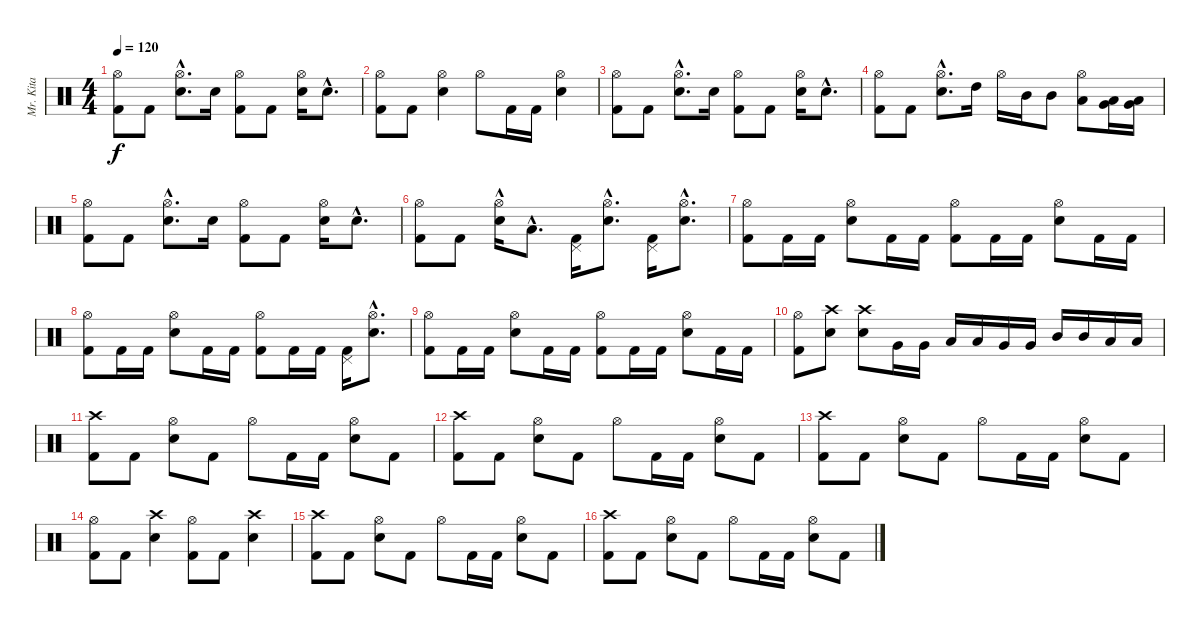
\track ("Mr. Kita" "Mr. Kita") {instrument percussion}
\staff {score}
\articulation defaults
\ts (4 4)
\tempo 120
\clef neutral
\ks c
("Hi-Hat (open)" "Kick (hit) 2").8{dy f} "Kick (hit) 2".8 ("Hi-Hat (open)"{hac} "Snare (hit) 2"{hac}).8{d} "Snare (hit) 2".16 ("Hi-Hat (open)" "Kick (hit) 2").8 "Kick (hit) 2".8 ("Hi-Hat (open)" "Snare (hit) 2").16 "Snare (hit) 2"{hac}.8{d} |
("Hi-Hat (open)" "Kick (hit) 2").8 "Kick (hit) 2".8 ("Hi-Hat (open)" "Snare (hit) 2").4 "Hi-Hat (open)".8 "Kick (hit) 2".16 "Kick (hit) 2".16 ("Hi-Hat (open)" "Snare (hit) 2").4 |
("Hi-Hat (open)" "Kick (hit) 2").8 "Kick (hit) 2".8 ("Hi-Hat (open)"{hac} "Snare (hit) 2"{hac}).8{d} "Snare (hit) 2".16 ("Hi-Hat (open)" "Kick (hit) 2").8 "Kick (hit) 2".8 ("Hi-Hat (open)" "Snare (hit) 2").16 "Snare (hit) 2"{hac}.8{d} |
("Hi-Hat (open)" "Kick (hit) 2").8 "Kick (hit) 2".8 ("Hi-Hat (open)"{hac} "Snare (hit) 2"{hac}).8{d} "High Tom (hit)".16 "Hi-Hat (open)".16 "Mid Tom (hit)".16 "Mid Tom (hit)".8 ("Hi-Hat (open)" "Low Tom (hit)").8 ("Low Floor Tom (hit)" "Very Low Tom (hit)").16 ("Low Floor Tom (hit)" "Very Low Tom (hit)").16 |
("Hi-Hat (open)" "Kick (hit) 2").8 "Kick (hit) 2".8 ("Hi-Hat (open)"{hac} "Snare (hit) 2"{hac}).8{d} "Snare (hit) 2".16 ("Hi-Hat (open)" "Kick (hit) 2").8 "Kick (hit) 2".8 ("Hi-Hat (open)" "Snare (hit) 2").16 "Snare (hit) 2"{hac}.8{d} |
("Hi-Hat (open)" "Kick (hit) 2").8 "Kick (hit) 2".8 ("Hi-Hat (open)" "Snare (hit) 2"{hac}).16 "Low Floor Tom (hit)"{hac}.8{d} ("Pedal Hi-Hat (hit)" "Kick (hit) 2").16 ("Hi-Hat (open)"{hac} "Snare (hit) 2"{hac}).8{d} ("Pedal Hi-Hat (hit)" "Kick (hit) 2").16 ("Hi-Hat (open)"{hac} "Snare (hit) 2"{hac}).8{d} |
("Hi-Hat (open)" "Kick (hit) 2").8 "Kick (hit) 2".16 "Kick (hit) 2".16 ("Hi-Hat (open)" "Snare (hit) 2").8 "Kick (hit) 2".16 "Kick (hit) 2".16 ("Hi-Hat (open)" "Kick (hit) 2").8 "Kick (hit) 2".16 "Kick (hit) 2".16 ("Hi-Hat (open)" "Snare (hit) 2").8 "Kick (hit) 2".16 "Kick (hit) 2".16 |
("Hi-Hat (open)" "Kick (hit) 2").8 "Kick (hit) 2".16 "Kick (hit) 2".16 ("Hi-Hat (open)" "Snare (hit) 2").8 "Kick (hit) 2".16 "Kick (hit) 2".16 ("Hi-Hat (open)" "Kick (hit) 2").8 "Kick (hit) 2".16 "Kick (hit) 2".16 ("Pedal Hi-Hat (hit)" "Kick (hit) 2").16 ("Hi-Hat (open)"{hac} "Snare (hit) 2"{hac}).8{d} |
("Hi-Hat (open)" "Kick (hit) 2").8 "Kick (hit) 2".16 "Kick (hit) 2".16 ("Hi-Hat (open)" "Snare (hit) 2").8 "Kick (hit) 2".16 "Kick (hit) 2".16 ("Hi-Hat (open)" "Kick (hit) 2").8 "Kick (hit) 2".16 "Kick (hit) 2".16 ("Hi-Hat (open)" "Snare (hit) 2").8 "Kick (hit) 2".16 "Kick (hit) 2".16 |
("Hi-Hat (open)" "Kick (hit) 2").8 ("Crash high (hit)" "Snare (hit) 2").8 ("Crash high (hit)" "Snare (hit) 2").8 "Very Low Tom (hit)".16 "Very Low Tom (hit)".16 "Low Tom (hit)".16 "Low Tom (hit)".16 "Very Low Tom (hit)".16 "Very Low Tom (hit)".16 "Mid Tom (hit)".16 "Mid Tom (hit)".16 "Low Tom (hit)".16 "Low Tom (hit)".16 |
("Crash high (hit)" "Kick (hit) 2").8 "Kick (hit) 2".8 ("Hi-Hat (open)" "Snare (hit) 2").8 "Kick (hit) 2".8 "Hi-Hat (open)".8 "Kick (hit) 2".16 "Kick (hit) 2".16 ("Hi-Hat (open)" "Snare (hit) 2").8 "Kick (hit) 2".8 |
("Crash high (hit)" "Kick (hit) 2").8 "Kick (hit) 2".8 ("Hi-Hat (open)" "Snare (hit) 2").8 "Kick (hit) 2".8 "Hi-Hat (open)".8 "Kick (hit) 2".16 "Kick (hit) 2".16 ("Hi-Hat (open)" "Snare (hit) 2").8 "Kick (hit) 2".8 |
("Crash high (hit)" "Kick (hit) 2").8 "Kick (hit) 2".8 ("Hi-Hat (open)" "Snare (hit) 2").8 "Kick (hit) 2".8 "Hi-Hat (open)".8 "Kick (hit) 2".16 "Kick (hit) 2".16 ("Hi-Hat (open)" "Snare (hit) 2").8 "Kick (hit) 2".8 |
("Hi-Hat (open)" "Kick (hit) 2").8 "Kick (hit) 2".8 ("Crash high (hit)" "Snare (hit) 2").4 ("Hi-Hat (open)" "Kick (hit) 2").8 "Kick (hit) 2".8 ("Crash high (hit)" "Snare (hit) 2").4 |
("Crash high (hit)" "Kick (hit) 2").8 "Kick (hit) 2".8 ("Hi-Hat (open)" "Snare (hit) 2").8 "Kick (hit) 2".8 "Hi-Hat (open)".8 "Kick (hit) 2".16 "Kick (hit) 2".16 ("Hi-Hat (open)" "Snare (hit) 2").8 "Kick (hit) 2".8 |
("Crash high (hit)" "Kick (hit) 2").8 "Kick (hit) 2".8 ("Hi-Hat (open)" "Snare (hit) 2").8 "Kick (hit) 2".8 "Hi-Hat (open)".8 "Kick (hit) 2".16 "Kick (hit) 2".16 ("Hi-Hat (open)" "Snare (hit) 2").8 "Kick (hit) 2".8
